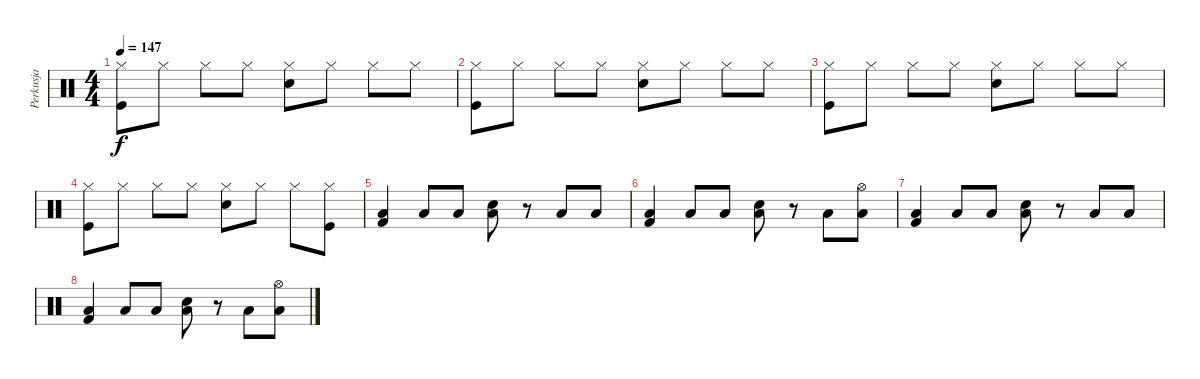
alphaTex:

\track ("Perkusja" "Perkusja") {instrument percussion}
\staff {score}
\articulation defaults
\ts (4 4)
\tempo 147
\clef neutral
\ks c
("Hi-Hat (closed)" "Kick (hit)").8{dy f} "Hi-Hat (closed)".8 "Hi-Hat (closed)".8 "Hi-Hat (closed)".8 ("Hi-Hat (closed)" "Snare (hit) 2").8 "Hi-Hat (closed)".8 "Hi-Hat (closed)".8 "Hi-Hat (closed)".8 |
("Hi-Hat (closed)" "Kick (hit)").8 "Hi-Hat (closed)".8 "Hi-Hat (closed)".8 "Hi-Hat (closed)".8 ("Hi-Hat (closed)" "Snare (hit) 2").8 "Hi-Hat (closed)".8 "Hi-Hat (closed)".8 "Hi-Hat (closed)".8 |
("Hi-Hat (closed)" "Kick (hit)").8 "Hi-Hat (closed)".8 "Hi-Hat (closed)".8 "Hi-Hat (closed)".8 ("Hi-Hat (closed)" "Snare (hit) 2").8 "Hi-Hat (closed)".8 "Hi-Hat (closed)".8 "Hi-Hat (closed)".8 |
("Hi-Hat (closed)" "Kick (hit)").8 "Hi-Hat (closed)".8 "Hi-Hat (closed)".8 "Hi-Hat (closed)".8 ("Hi-Hat (closed)" "Snare (hit) 2").8 "Hi-Hat (closed)".8 "Hi-Hat (closed)".8 ("Hi-Hat (closed)" "Kick (hit)").8 |
("Low Tom (hit)" "Kick (hit) 2").4 "Low Tom (hit)".8 "Low Tom (hit)".8 ("Low Tom (hit)" "Snare (hit) 2").8 r.8 "Low Tom (hit)".8 "Low Tom (hit)".8 |
("Low Tom (hit)" "Kick (hit) 2").4 "Low Tom (hit)".8 "Low Tom (hit)".8 ("Low Tom (hit)" "Snare (hit) 2").8 r.8 "Low Tom (hit)".8 ("Hi-Hat (open)" "Low Tom (hit)").8 |
("Low Tom (hit)" "Kick (hit) 2").4 "Low Tom (hit)".8 "Low Tom (hit)".8 ("Low Tom (hit)" "Snare (hit) 2").8 r.8 "Low Tom (hit)".8 "Low Tom (hit)".8 |
("Low Tom (hit)" "Kick (hit) 2").4 "Low Tom (hit)".8 "Low Tom (hit)".8 ("Low Tom (hit)" "Snare (hit) 2").8 r.8 "Low Tom (hit)".8 ("Hi-Hat (open)" "Low Tom (hit)").8
